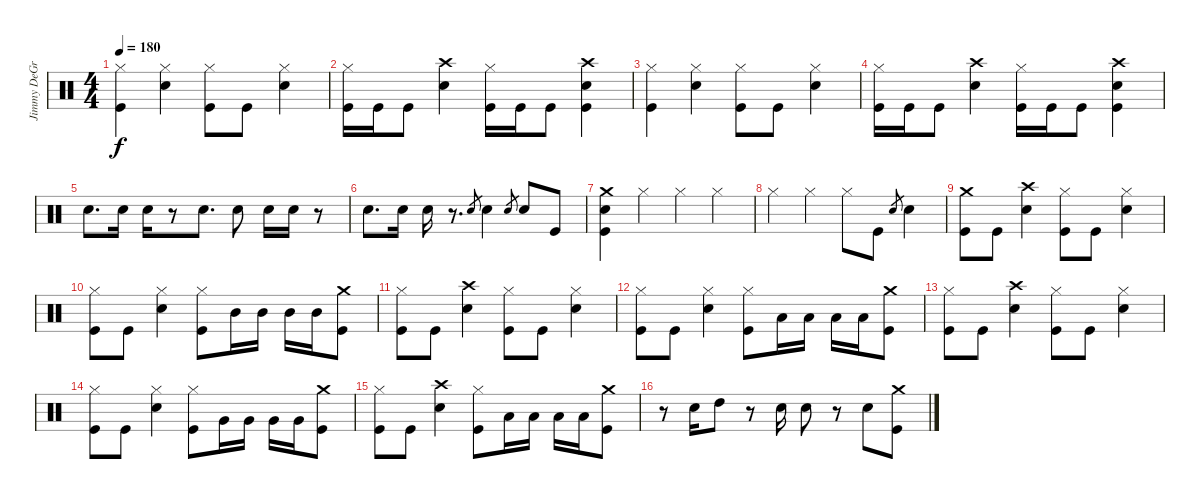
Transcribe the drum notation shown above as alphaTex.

\track ("Jimmy DeGrasso" "Jimmy DeGr") {instrument percussion}
\staff {score}
\articulation defaults
\ts (4 4)
\tempo 180
\clef neutral
\ks c
("Hi-Hat (closed)" "Kick (hit)").4{dy f} ("Hi-Hat (closed)" "Snare (hit) 2").4 ("Hi-Hat (closed)" "Kick (hit)").8 "Kick (hit)".8 ("Hi-Hat (closed)" "Snare (hit) 2").4 |
("Hi-Hat (closed)" "Kick (hit)").16 "Kick (hit)".16 "Kick (hit)".8 ("Crash high (hit)" "Snare (hit) 2").4 ("Hi-Hat (closed)" "Kick (hit)").16 "Kick (hit)".16 "Kick (hit)".8 ("Crash high (hit)" "Snare (hit) 2" "Kick (hit)").4 |
("Hi-Hat (closed)" "Kick (hit)").4 ("Hi-Hat (closed)" "Snare (hit) 2").4 ("Hi-Hat (closed)" "Kick (hit)").8 "Kick (hit)".8 ("Hi-Hat (closed)" "Snare (hit) 2").4 |
("Hi-Hat (closed)" "Kick (hit)").16 "Kick (hit)".16 "Kick (hit)".8 ("Crash high (hit)" "Snare (hit) 2").4 ("Hi-Hat (closed)" "Kick (hit)").16 "Kick (hit)".16 "Kick (hit)".8 ("Crash high (hit)" "Snare (hit) 2" "Kick (hit)").4 |
"Snare (hit) 2".8{d} "Snare (hit) 2".16 "Snare (hit) 2".16 r.8 "Snare (hit) 2".8{d} "Snare (hit) 2".8 "Snare (hit) 2".16 "Snare (hit) 2".16 r.8 |
"Snare (hit) 2".8{d} "Snare (hit) 2".16 "Snare (hit) 2".16 r.8{d} "Snare (hit) 2".8{gr} "Snare (hit) 2".4 "Snare (hit) 2".8{gr} "Snare (hit) 2".8 "Kick (hit)".8 |
("Crash medium (hit)" "Snare (hit) 2" "Kick (hit)").4 "Hi-Hat (closed)".4 "Hi-Hat (closed)".4 "Hi-Hat (closed)".4 |
"Hi-Hat (closed)".4 "Hi-Hat (closed)".4 "Hi-Hat (closed)".8 "Kick (hit)".8 "Snare (hit) 2".8{gr} "Snare (hit) 2".4 |
("Crash medium (hit)" "Kick (hit)").8 "Kick (hit)".8 ("Crash high (hit)" "Snare (hit) 2").4 ("Hi-Hat (closed)" "Kick (hit)").8 "Kick (hit)".8 ("Hi-Hat (closed)" "Snare (hit) 2").4 |
("Hi-Hat (closed)" "Kick (hit)").8 "Kick (hit)".8 ("Hi-Hat (closed)" "Snare (hit) 2").4 ("Hi-Hat (closed)" "Kick (hit)").8 "Mid Tom (hit)".16 "Mid Tom (hit)".16 "Mid Tom (hit)".16 "Mid Tom (hit)".16 ("Crash medium (hit)" "Kick (hit)").8 |
("Hi-Hat (closed)" "Kick (hit)").8 "Kick (hit)".8 ("Crash high (hit)" "Snare (hit) 2").4 ("Hi-Hat (closed)" "Kick (hit)").8 "Kick (hit)".8 ("Hi-Hat (closed)" "Snare (hit) 2").4 |
("Hi-Hat (closed)" "Kick (hit)").8 "Kick (hit)".8 ("Hi-Hat (closed)" "Snare (hit) 2").4 ("Hi-Hat (closed)" "Kick (hit)").8 "Low Tom (hit)".16 "Low Tom (hit)".16 "Low Tom (hit)".16 "Low Tom (hit)".16 ("Crash medium (hit)" "Kick (hit)").8 |
("Hi-Hat (closed)" "Kick (hit)").8 "Kick (hit)".8 ("Crash high (hit)" "Snare (hit) 2").4 ("Hi-Hat (closed)" "Kick (hit)").8 "Kick (hit)".8 ("Hi-Hat (closed)" "Snare (hit) 2").4 |
("Hi-Hat (closed)" "Kick (hit)").8 "Kick (hit)".8 ("Hi-Hat (closed)" "Snare (hit) 2").4 ("Hi-Hat (closed)" "Kick (hit)").8 "Very Low Tom (hit)".16 "Very Low Tom (hit)".16 "Very Low Tom (hit)".16 "Very Low Tom (hit)".16 ("Crash medium (hit)" "Kick (hit)").8 |
("Hi-Hat (closed)" "Kick (hit)").8 "Kick (hit)".8 ("Crash high (hit)" "Snare (hit) 2").4 ("Hi-Hat (closed)" "Kick (hit)").8 "Low Tom (hit)".16 "Low Tom (hit)".16 "Low Tom (hit)".16 "Low Tom (hit)".16 ("Crash medium (hit)" "Kick (hit)").8 |
r.8 "Snare (hit) 2".16 "High Tom (hit)".8 r.8 "Snare (hit) 2".16 "Snare (hit) 2".8 r.8 "Snare (hit) 2".8 ("Crash medium (hit)" "Kick (hit)").8
